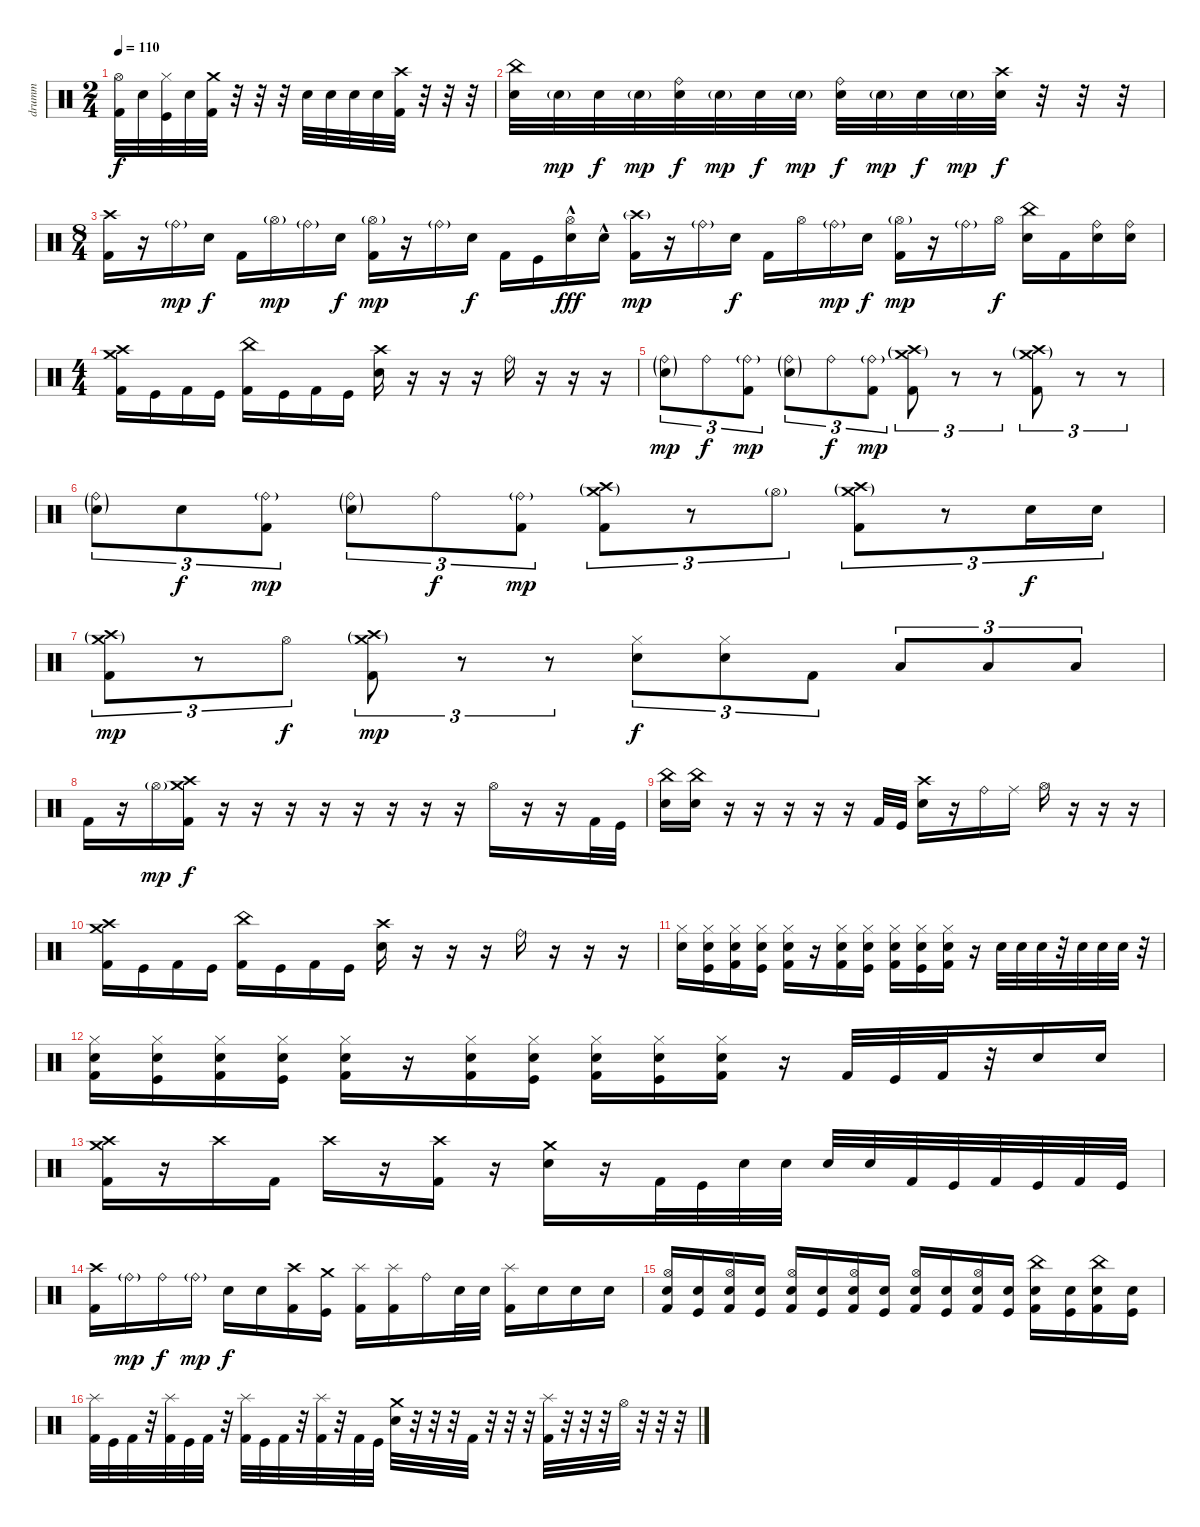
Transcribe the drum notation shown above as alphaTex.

\track ("drumm" "drumm") {instrument percussion}
\staff
\articulation defaults
\ts (2 4)
\tempo 110
\clef neutral
\ks c
("Kick (hit) 2" "Hi-Hat (open)").32{dy f} "Electric Snare (hit)".32 ("Kick (hit)" "Hi-Hat (closed)").32 "Electric Snare (hit)".32 ("Kick (hit) 2" "Crash medium (hit)").32 r.32 r.32 r.32 "Electric Snare (hit)".32 "Electric Snare (hit)".32 "Electric Snare (hit)".32 "Electric Snare (hit)".32 ("Kick (hit) 2" "Crash high (hit)").32 r.32 r.32 r.32 |
("Electric Snare (hit)" "China (hit)").32 "Electric Snare (hit)"{g}.32{dy mp} "Electric Snare (hit)".32{dy f} "Electric Snare (hit)"{g}.32{dy mp} ("Electric Snare (hit)" "Ride (bell)").32{dy f} "Electric Snare (hit)"{g}.32{dy mp} "Electric Snare (hit)".32{dy f} "Electric Snare (hit)"{g}.32{dy mp} ("Electric Snare (hit)" "Ride (bell)").32{dy f} "Electric Snare (hit)"{g}.32{dy mp} "Electric Snare (hit)".32{dy f} "Electric Snare (hit)"{g}.32{dy mp} ("Electric Snare (hit)" "Crash high (hit)").32{dy f} r.32 r.32 r.32 |
\ts (8 4)
("Kick (hit) 2" "Crash high (hit)").16 r.16 "Ride (bell)"{g}.16{dy mp} "Electric Snare (hit)".16{dy f} "Kick (hit) 2".16 "Hi-Hat (open)"{g}.16{dy mp} "Ride (bell)"{g}.16 "Electric Snare (hit)".16{dy f} ("Kick (hit) 2" "Hi-Hat (open)"{g}).16{dy mp} r.16 "Ride (bell)"{g}.16 "Electric Snare (hit)".16{dy f} "Kick (hit) 2".16 "Kick (hit)".16 ("Electric Snare (hit)"{hac} "Hi-Hat (open)").16{dy fff} "Electric Snare (hit)"{hac}.16 ("Kick (hit) 2" "Crash high (hit)"{g}).16{dy mp} r.16 "Ride (bell)"{g}.16 "Electric Snare (hit)".16{dy f} "Kick (hit) 2".16 "Hi-Hat (open)".16 "Ride (bell)"{g}.16{dy mp} "Electric Snare (hit)".16{dy f} ("Kick (hit) 2" "Hi-Hat (open)"{g}).16{dy mp} r.16 "Ride (bell)"{g}.16 "Hi-Hat (open)".16{dy f} ("Electric Snare (hit)" "China (hit)").16 "Kick (hit) 2".16 ("Electric Snare (hit)" "Ride (bell)").16 ("Electric Snare (hit)" "Ride (bell)").16 |
\ts (4 4)
("Kick (hit) 2" "Crash medium (hit)" "Crash high (hit)").16 "Kick (hit)".16 "Kick (hit) 2".16 "Kick (hit)".16 ("Kick (hit) 2" "China (hit)").16 "Kick (hit)".16 "Kick (hit) 2".16 "Kick (hit)".16 ("Electric Snare (hit)" "Crash high (hit)").16 r.16 r.16 r.16 "Ride (bell)".16 r.16 r.16 r.16 |
("Electric Snare (hit)"{g} "Ride (bell)"{g}).8{tu (3 2) dy mp} "Ride (bell)".8{tu (3 2) dy f} ("Kick (hit) 2" "Ride (bell)"{g}).8{tu (3 2) dy mp} ("Electric Snare (hit)"{g} "Ride (bell)"{g}).8{tu (3 2)} "Ride (bell)".8{tu (3 2) dy f} ("Kick (hit) 2" "Ride (bell)"{g}).8{tu (3 2) dy mp} ("Kick (hit) 2" "Crash medium (hit)"{g} "Crash high (hit)"{g}).8{tu (3 2)} r.8{tu (3 2)} r.8{tu (3 2)} ("Kick (hit) 2" "Crash medium (hit)"{g} "Crash high (hit)"{g}).8{tu (3 2)} r.8{tu (3 2)} r.8{tu (3 2)} |
("Electric Snare (hit)"{g} "Ride (bell)"{g}).8{tu (3 2)} "Electric Snare (hit)".8{tu (3 2) dy f} ("Kick (hit) 2" "Ride (bell)"{g}).8{tu (3 2) dy mp} ("Electric Snare (hit)"{g} "Ride (bell)"{g}).8{tu (3 2)} "Ride (bell)".8{tu (3 2) dy f} ("Kick (hit) 2" "Ride (bell)"{g}).8{tu (3 2) dy mp} ("Kick (hit) 2" "Crash medium (hit)"{g} "Crash high (hit)"{g}).8{tu (3 2)} r.8{tu (3 2)} "Hi-Hat (open)"{g}.8{tu (3 2)} ("Kick (hit) 2" "Crash medium (hit)"{g} "Crash high (hit)"{g}).8{tu (3 2)} r.8{tu (3 2)} "Electric Snare (hit)".16{tu (3 2) dy f} "Electric Snare (hit)".16{tu (3 2)} |
("Kick (hit) 2" "Crash medium (hit)"{g} "Crash high (hit)"{g}).8{tu (3 2) dy mp} r.8{tu (3 2)} "Hi-Hat (open)".8{tu (3 2) dy f} ("Kick (hit) 2" "Crash medium (hit)"{g} "Crash high (hit)"{g}).8{tu (3 2) dy mp} r.8{tu (3 2)} r.8{tu (3 2)} ("Electric Snare (hit)" "Hi-Hat (closed)").8{tu (3 2) dy f} ("Electric Snare (hit)" "Hi-Hat (closed)").8{tu (3 2)} "Kick (hit) 2".8{tu (3 2)} "Low Tom (hit)".8{tu (3 2)} "Low Tom (hit)".8{tu (3 2)} "Low Floor Tom (hit)".8{tu (3 2)} |
"Kick (hit) 2".16 r.16 "Hi-Hat (open)"{g}.16{dy mp} ("Kick (hit) 2" "Crash medium (hit)" "Crash high (hit)").16{dy f} r.16 r.16 r.16 r.16 r.16 r.16 r.16 r.16 "Hi-Hat (open)".16 r.16 r.16 "Kick (hit) 2".32 "Kick (hit)".32 |
("Electric Snare (hit)" "China (hit)").16 ("Electric Snare (hit)" "China (hit)").16 r.16 r.16 r.16 r.16 r.16 "Kick (hit) 2".32 "Kick (hit)".32 ("Electric Snare (hit)" "Crash high (hit)").16 r.16 "Ride (bell)".16 "Ride (middle)".16 "Hi-Hat (open)".16 r.16 r.16 r.16 |
("Kick (hit) 2" "Crash medium (hit)" "Crash high (hit)").16 "Kick (hit)".16 "Kick (hit) 2".16 "Kick (hit)".16 ("Kick (hit) 2" "China (hit)").16 "Kick (hit)".16 "Kick (hit) 2".16 "Kick (hit)".16 ("Electric Snare (hit)" "Crash high (hit)").16 r.16 r.16 r.16 "Ride (bell)".16 r.16 r.16 r.16 |
("Electric Snare (hit)" "Hi-Hat (closed)").16 ("Kick (hit)" "Electric Snare (hit)" "Hi-Hat (closed)").16 ("Kick (hit) 2" "Electric Snare (hit)" "Hi-Hat (closed)").16 ("Kick (hit)" "Electric Snare (hit)" "Hi-Hat (closed)").16 ("Kick (hit) 2" "Electric Snare (hit)" "Hi-Hat (closed)").16 r.16 ("Kick (hit) 2" "Electric Snare (hit)" "Hi-Hat (closed)").16 ("Kick (hit)" "Electric Snare (hit)" "Hi-Hat (closed)").16 ("Kick (hit) 2" "Electric Snare (hit)" "Hi-Hat (closed)").16 ("Kick (hit)" "Electric Snare (hit)" "Hi-Hat (closed)").16 ("Kick (hit) 2" "Electric Snare (hit)" "Hi-Hat (closed)").16 r.16 "Electric Snare (hit)".32 "Electric Snare (hit)".32 "Electric Snare (hit)".32 r.32 "Electric Snare (hit)".32 "Electric Snare (hit)".32 "Electric Snare (hit)".32 r.32 |
("Kick (hit) 2" "Electric Snare (hit)" "Hi-Hat (closed)").16 ("Kick (hit)" "Electric Snare (hit)" "Hi-Hat (closed)").16 ("Kick (hit) 2" "Electric Snare (hit)" "Hi-Hat (closed)").16 ("Kick (hit)" "Electric Snare (hit)" "Hi-Hat (closed)").16 ("Kick (hit) 2" "Electric Snare (hit)" "Hi-Hat (closed)").16 r.16 ("Kick (hit) 2" "Electric Snare (hit)" "Hi-Hat (closed)").16 ("Kick (hit)" "Electric Snare (hit)" "Hi-Hat (closed)").16 ("Kick (hit) 2" "Electric Snare (hit)" "Hi-Hat (closed)").16 ("Kick (hit)" "Electric Snare (hit)" "Hi-Hat (closed)").16 ("Kick (hit) 2" "Electric Snare (hit)" "Hi-Hat (closed)").16 r.16 "Kick (hit) 2".32 "Kick (hit)".32 "Kick (hit) 2".32 r.32 "Electric Snare (hit)".16 "Electric Snare (hit)".16 |
("Kick (hit) 2" "Crash medium (hit)" "Crash high (hit)").16 r.16 "Crash high (hit)".16 "Kick (hit) 2".16 "Crash high (hit)".16 r.16 ("Kick (hit) 2" "Crash high (hit)").16 r.16 ("Electric Snare (hit)" "Crash medium (hit)").16 r.16 "Kick (hit) 2".32 "Kick (hit)".32 "Electric Snare (hit)".32 "Electric Snare (hit)".32 "Electric Snare (hit)".32 "Electric Snare (hit)".32 "Kick (hit) 2".32 "Kick (hit)".32 "Kick (hit) 2".32 "Kick (hit)".32 "Kick (hit) 2".32 "Kick (hit)".32 |
("Kick (hit) 2" "Crash high (hit)").16 "Ride (bell)"{g}.16{dy mp} "Ride (bell)".16{dy f} "Ride (bell)"{g}.16{dy mp} "Electric Snare (hit)".16{dy f} "Electric Snare (hit)".16 ("Kick (hit) 2" "Crash high (hit)").16 ("Kick (hit)" "Crash medium (hit)").16 ("Splash (hit)" "Kick (hit) 2").16 ("Splash (hit)" "Kick (hit) 2").16 "Ride (bell)".16 "Electric Snare (hit)".32 "Electric Snare (hit)".32 ("Splash (hit)" "Kick (hit) 2").16 "Electric Snare (hit)".16 "Electric Snare (hit)".16 "Electric Snare (hit)".16 |
("Kick (hit) 2" "Hi-Hat (open)" "Electric Snare (hit)").16 ("Kick (hit)" "Electric Snare (hit)").16 ("Kick (hit) 2" "Hi-Hat (open)" "Electric Snare (hit)").16 ("Kick (hit)" "Electric Snare (hit)").16 ("Kick (hit) 2" "Hi-Hat (open)" "Electric Snare (hit)").16 ("Kick (hit)" "Electric Snare (hit)").16 ("Kick (hit) 2" "Hi-Hat (open)" "Electric Snare (hit)").16 ("Kick (hit)" "Electric Snare (hit)").16 ("Kick (hit) 2" "Hi-Hat (open)" "Electric Snare (hit)").16 ("Kick (hit)" "Electric Snare (hit)").16 ("Kick (hit) 2" "Hi-Hat (open)" "Electric Snare (hit)").16 ("Kick (hit)" "Electric Snare (hit)").16 ("Kick (hit) 2" "China (hit)" "Electric Snare (hit)").16 ("Kick (hit)" "Electric Snare (hit)").16 ("Kick (hit) 2" "China (hit)" "Electric Snare (hit)").16 ("Kick (hit)" "Electric Snare (hit)").16 |
("Kick (hit) 2" "Splash (hit)").32 "Kick (hit)".32 "Kick (hit) 2".32 r.32 ("Kick (hit) 2" "Splash (hit)").32 "Kick (hit)".32 "Kick (hit) 2".32 r.32 ("Kick (hit) 2" "Splash (hit)").32 "Kick (hit)".32 "Kick (hit) 2".32 r.32 ("Kick (hit) 2" "Splash (hit)").32 r.32 "Kick (hit) 2".32 "Kick (hit)".32 ("Electric Snare (hit)" "Crash medium (hit)").32 r.32 r.32 r.32 "Kick (hit) 2".32 r.32 r.32 r.32 ("Kick (hit) 2" "Splash (hit)").32 r.32 r.32 r.32 "Hi-Hat (open)".32 r.32 r.32 r.32
